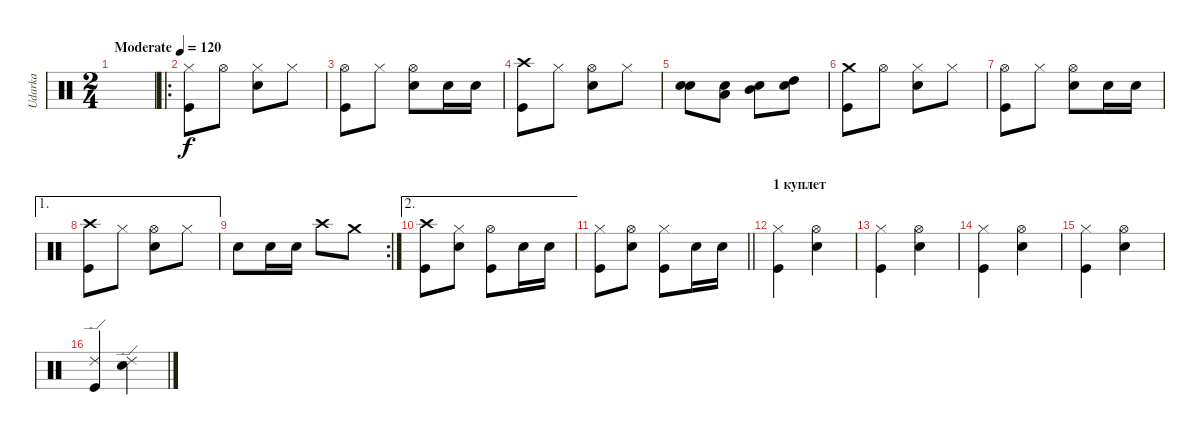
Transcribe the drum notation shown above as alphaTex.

\track ("Udarka" "Udarka") {solo instrument percussion}
\staff {score}
\articulation defaults
\ts (2 4)
\tempo (120 "Moderate")
\clef neutral
\ks c
|
\ro
("Kick (hit)" "Hi-Hat (closed)").8 "Hi-Hat (open)".8 ("Snare (hit) 2" "Hi-Hat (closed)").8 "Hi-Hat (closed)".8 |
("Kick (hit)" "Hi-Hat (open)").8 "Hi-Hat (closed)".8 ("Snare (hit) 2" "Hi-Hat (open)").8 "Snare (hit) 2".16 "Snare (hit) 2".16 |
("Kick (hit)" "Crash high (hit)").8 "Hi-Hat (closed)".8 ("Snare (hit) 2" "Hi-Hat (open)").8 "Hi-Hat (closed)".8 |
("Snare (hit) 2" "Snare (hit) 2").8 ("Snare (hit) 2" "Low Tom (hit)").8 ("Snare (hit) 2" "Mid Tom (hit)").8 ("Snare (hit) 2" "High Tom (hit)").8 |
("Kick (hit)" "Crash medium (hit)").8 "Hi-Hat (open)".8 ("Snare (hit) 2" "Hi-Hat (closed)").8 "Hi-Hat (closed)".8 |
("Kick (hit)" "Hi-Hat (open)").8 "Hi-Hat (closed)".8 ("Snare (hit) 2" "Hi-Hat (open)").8 "Snare (hit) 2".16 "Snare (hit) 2".16 |
\ae 1
("Kick (hit)" "Crash high (hit)").8 "Hi-Hat (closed)".8 ("Snare (hit) 2" "Hi-Hat (open)").8 "Hi-Hat (closed)".8 |
\rc 2 "Snare (hit) 2".8 "Snare (hit) 2".16 "Snare (hit) 2".16 "Crash high (hit)".8 "Crash medium (hit)".8
|
\ae 2
("Kick (hit)" "Crash high (hit)").8 ("Snare (hit) 2" "Hi-Hat (closed)").8 ("Kick (hit)" "Hi-Hat (open)").8 "Snare (hit) 2".16 "Snare (hit) 2".16 |
\barLineRight lightlight
("Kick (hit)" "Hi-Hat (closed)").8 ("Snare (hit) 2" "Hi-Hat (open)").8 ("Kick (hit)" "Hi-Hat (closed)").8 "Snare (hit) 2".16 "Snare (hit) 2".16 |
\section ("" "1 куплет")
("Kick (hit)" "Hi-Hat (closed)").4 ("Snare (hit) 2" "Hi-Hat (open)").4 |
("Kick (hit)" "Hi-Hat (closed)").4 ("Snare (hit) 2" "Hi-Hat (open)").4 |
("Kick (hit)" "Hi-Hat (closed)").4 ("Snare (hit) 2" "Hi-Hat (open)").4 |
("Kick (hit)" "Hi-Hat (closed)").4 ("Snare (hit) 2" "Hi-Hat (open)").4 |
("Kick (hit)" "Ride (edge) 2").4 ("Snare (hit) 2" "Ride (edge) 2").4
